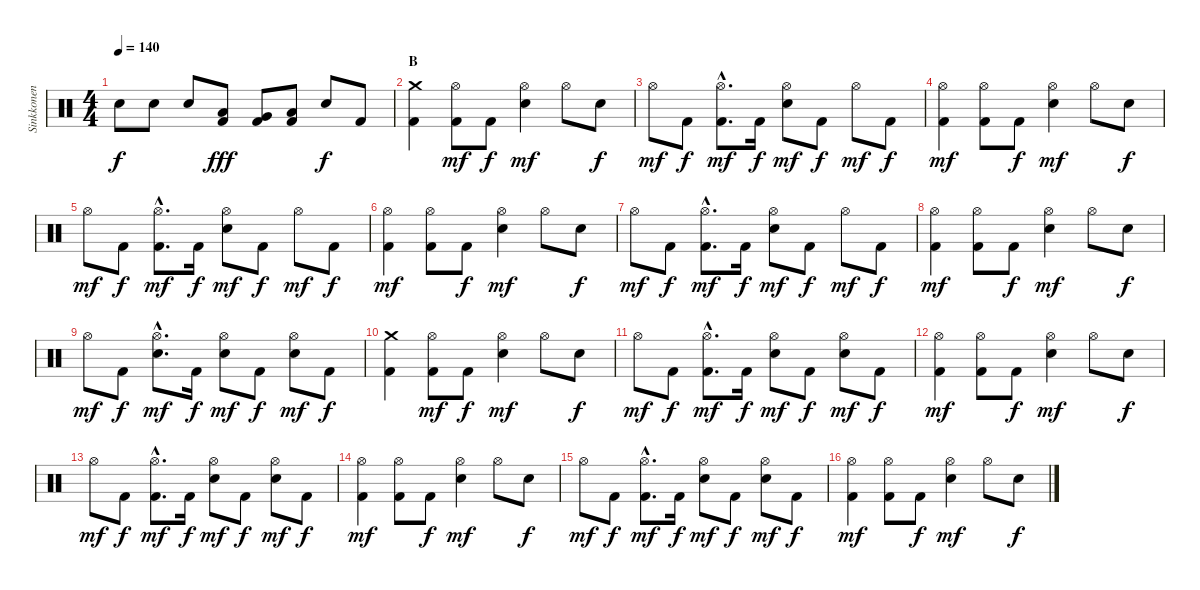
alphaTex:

\track ("Sinkkonen" "Sinkkonen") {instrument percussion}
\staff {score}
\articulation defaults
\ts (4 4)
\tempo 140
\clef neutral
\ks c "Snare (hit) 2".8{dy f} "Snare (hit) 2".8 "Snare (hit) 2".8
("Kick (hit) 2" "Low Tom (hit)").8{dy fff} ("Kick (hit) 2" "Very Low Tom (hit)").8 ("Kick (hit) 2" "Low Floor Tom (hit)").8 "Snare (hit) 2".8{dy f} "Kick (hit) 2".8 |
\section ("" "B")
("Kick (hit) 2" "Crash medium (hit)").4 ("Kick (hit) 2" "Hi-Hat (open)").8{dy mf} "Kick (hit) 2".8{dy f} ("Hi-Hat (open)" "Snare (hit) 2").4{dy mf} "Hi-Hat (open)".8 "Snare (hit) 2".8{dy f} |
"Hi-Hat (open)".8{dy mf} "Kick (hit) 2".8{dy f} ("Kick (hit) 2"{hac} "Hi-Hat (open)"{hac}).8{d dy mf} "Kick (hit) 2".16{dy f} ("Hi-Hat (open)" "Snare (hit) 2").8{dy mf} "Kick (hit) 2".8{dy f} "Hi-Hat (open)".8{dy mf} "Kick (hit) 2".8{dy f} |
("Kick (hit) 2" "Hi-Hat (open)").4{dy mf} ("Kick (hit) 2" "Hi-Hat (open)").8 "Kick (hit) 2".8{dy f} ("Hi-Hat (open)" "Snare (hit) 2").4{dy mf} "Hi-Hat (open)".8 "Snare (hit) 2".8{dy f} |
"Hi-Hat (open)".8{dy mf} "Kick (hit) 2".8{dy f} ("Kick (hit) 2"{hac} "Hi-Hat (open)"{hac}).8{d dy mf} "Kick (hit) 2".16{dy f} ("Hi-Hat (open)" "Snare (hit) 2").8{dy mf} "Kick (hit) 2".8{dy f} "Hi-Hat (open)".8{dy mf} "Kick (hit) 2".8{dy f} |
("Kick (hit) 2" "Hi-Hat (open)").4{dy mf} ("Kick (hit) 2" "Hi-Hat (open)").8 "Kick (hit) 2".8{dy f} ("Hi-Hat (open)" "Snare (hit) 2").4{dy mf} "Hi-Hat (open)".8 "Snare (hit) 2".8{dy f} |
"Hi-Hat (open)".8{dy mf} "Kick (hit) 2".8{dy f} ("Kick (hit) 2"{hac} "Hi-Hat (open)"{hac}).8{d dy mf} "Kick (hit) 2".16{dy f} ("Hi-Hat (open)" "Snare (hit) 2").8{dy mf} "Kick (hit) 2".8{dy f} "Hi-Hat (open)".8{dy mf} "Kick (hit) 2".8{dy f} |
("Kick (hit) 2" "Hi-Hat (open)").4{dy mf} ("Kick (hit) 2" "Hi-Hat (open)").8 "Kick (hit) 2".8{dy f} ("Hi-Hat (open)" "Snare (hit) 2").4{dy mf} "Hi-Hat (open)".8 "Snare (hit) 2".8{dy f} |
"Hi-Hat (open)".8{dy mf} "Kick (hit) 2".8{dy f} ("Hi-Hat (open)"{hac} "Snare (hit) 2"{hac}).8{d dy mf} "Kick (hit) 2".16{dy f} ("Hi-Hat (open)" "Snare (hit) 2").8{dy mf} "Kick (hit) 2".8{dy f} ("Hi-Hat (open)" "Snare (hit) 2").8{dy mf} "Kick (hit) 2".8{dy f} |
("Kick (hit) 2" "Crash medium (hit)").4 ("Kick (hit) 2" "Hi-Hat (open)").8{dy mf} "Kick (hit) 2".8{dy f} ("Hi-Hat (open)" "Snare (hit) 2").4{dy mf} "Hi-Hat (open)".8 "Snare (hit) 2".8{dy f} |
"Hi-Hat (open)".8{dy mf} "Kick (hit) 2".8{dy f} ("Kick (hit) 2"{hac} "Hi-Hat (open)"{hac}).8{d dy mf} "Kick (hit) 2".16{dy f} ("Hi-Hat (open)" "Snare (hit) 2").8{dy mf} "Kick (hit) 2".8{dy f} ("Hi-Hat (open)" "Snare (hit) 2").8{dy mf} "Kick (hit) 2".8{dy f} |
("Kick (hit) 2" "Hi-Hat (open)").4{dy mf} ("Kick (hit) 2" "Hi-Hat (open)").8 "Kick (hit) 2".8{dy f} ("Hi-Hat (open)" "Snare (hit) 2").4{dy mf} "Hi-Hat (open)".8 "Snare (hit) 2".8{dy f} |
"Hi-Hat (open)".8{dy mf} "Kick (hit) 2".8{dy f} ("Kick (hit) 2"{hac} "Hi-Hat (open)"{hac}).8{d dy mf} "Kick (hit) 2".16{dy f} ("Hi-Hat (open)" "Snare (hit) 2").8{dy mf} "Kick (hit) 2".8{dy f} ("Hi-Hat (open)" "Snare (hit) 2").8{dy mf} "Kick (hit) 2".8{dy f} |
("Kick (hit) 2" "Hi-Hat (open)").4{dy mf} ("Kick (hit) 2" "Hi-Hat (open)").8 "Kick (hit) 2".8{dy f} ("Hi-Hat (open)" "Snare (hit) 2").4{dy mf} "Hi-Hat (open)".8 "Snare (hit) 2".8{dy f} |
"Hi-Hat (open)".8{dy mf} "Kick (hit) 2".8{dy f} ("Kick (hit) 2"{hac} "Hi-Hat (open)"{hac}).8{d dy mf} "Kick (hit) 2".16{dy f} ("Hi-Hat (open)" "Snare (hit) 2").8{dy mf} "Kick (hit) 2".8{dy f} ("Hi-Hat (open)" "Snare (hit) 2").8{dy mf} "Kick (hit) 2".8{dy f} |
("Kick (hit) 2" "Hi-Hat (open)").4{dy mf} ("Kick (hit) 2" "Hi-Hat (open)").8 "Kick (hit) 2".8{dy f} ("Hi-Hat (open)" "Snare (hit) 2").4{dy mf} "Hi-Hat (open)".8 "Snare (hit) 2".8{dy f}
